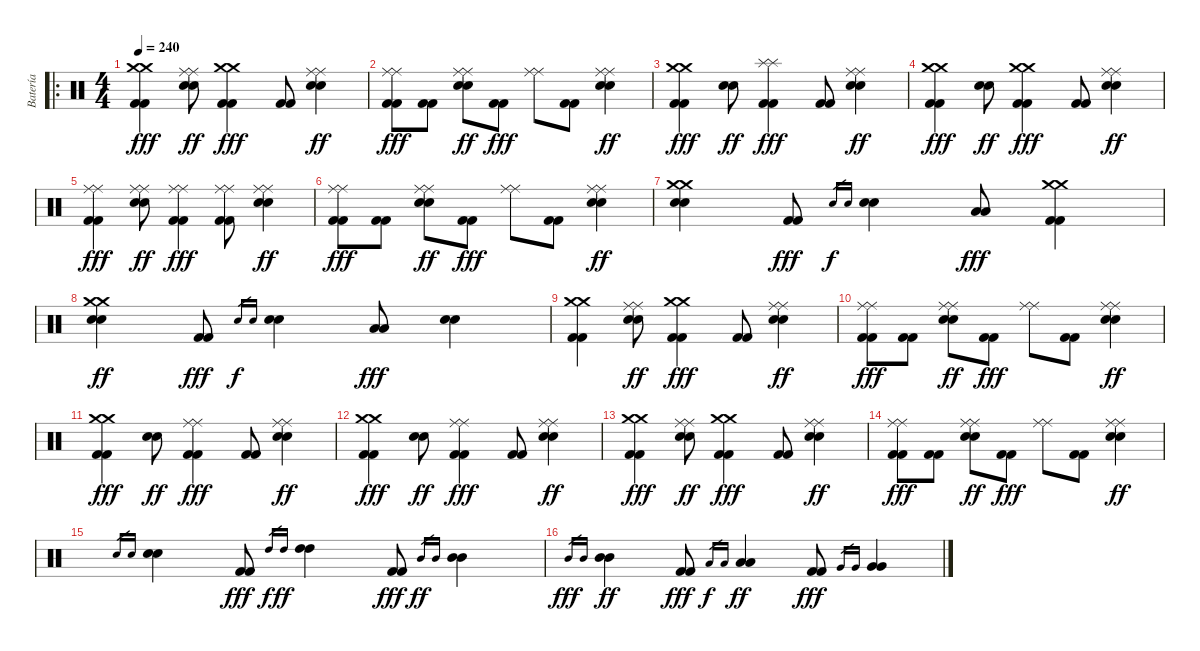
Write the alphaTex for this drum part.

\track ("Batería" "Batería") {instrument percussion}
\staff {score}
\articulation defaults
\ro
\ts (4 4)
\tempo 240
\clef neutral
\ks c
("Crash medium (hit)" "Crash medium (hit)" "Kick (hit) 2" "Kick (hit) 2").4{dy fff} ("Ride (middle)" "Ride (middle)" "Electric Snare (hit)" "Electric Snare (hit)").8{dy ff} ("Crash medium (hit)" "Crash medium (hit)" "Kick (hit) 2" "Kick (hit) 2").4{dy fff} ("Kick (hit) 2" "Kick (hit) 2").8 ("Ride (middle)" "Ride (middle)" "Electric Snare (hit)" "Electric Snare (hit)").4{dy ff} |
("Ride (middle)" "Ride (middle)" "Kick (hit) 2" "Kick (hit) 2").8{dy fff} ("Kick (hit) 2" "Kick (hit) 2").8 ("Ride (middle)" "Ride (middle)" "Electric Snare (hit)" "Electric Snare (hit)").8{dy ff} ("Kick (hit) 2" "Kick (hit) 2").8{dy fff} ("Ride (middle)" "Ride (middle)").8 ("Kick (hit) 2" "Kick (hit) 2").8 ("Ride (middle)" "Ride (middle)" "Electric Snare (hit)" "Electric Snare (hit)").4{dy ff} |
("Crash medium (hit)" "Crash medium (hit)" "Kick (hit) 2" "Kick (hit) 2").4{dy fff} ("Electric Snare (hit)" "Electric Snare (hit)").8{dy ff} ("Splash (hit)" "Splash (hit)" "Kick (hit) 2" "Kick (hit) 2").4{dy fff} ("Kick (hit) 2" "Kick (hit) 2").8 ("Ride (middle)" "Ride (middle)" "Electric Snare (hit)" "Electric Snare (hit)").4{dy ff} |
("Crash medium (hit)" "Crash medium (hit)" "Kick (hit) 2" "Kick (hit) 2").4{dy fff} ("Electric Snare (hit)" "Electric Snare (hit)").8{dy ff} ("Crash medium (hit)" "Crash medium (hit)" "Kick (hit) 2" "Kick (hit) 2").4{dy fff} ("Kick (hit) 2" "Kick (hit) 2").8 ("Ride (middle)" "Ride (middle)" "Electric Snare (hit)" "Electric Snare (hit)").4{dy ff} |
("Ride (middle)" "Ride (middle)" "Kick (hit) 2" "Kick (hit) 2").4{dy fff} ("Ride (middle)" "Ride (middle)" "Electric Snare (hit)" "Electric Snare (hit)").8{dy ff} ("Ride (middle)" "Ride (middle)" "Kick (hit) 2" "Kick (hit) 2").4{dy fff} ("Ride (middle)" "Ride (middle)" "Kick (hit) 2" "Kick (hit) 2").8 ("Ride (middle)" "Ride (middle)" "Electric Snare (hit)" "Electric Snare (hit)").4{dy ff} |
("Ride (middle)" "Ride (middle)" "Kick (hit) 2" "Kick (hit) 2").8{dy fff} ("Kick (hit) 2" "Kick (hit) 2").8 ("Ride (middle)" "Ride (middle)" "Electric Snare (hit)" "Electric Snare (hit)").8{dy ff} ("Kick (hit) 2" "Kick (hit) 2").8{dy fff} ("Ride (middle)" "Ride (middle)").8 ("Kick (hit) 2" "Kick (hit) 2").8 ("Ride (middle)" "Ride (middle)" "Electric Snare (hit)" "Electric Snare (hit)").4{dy ff} |
("Crash medium (hit)" "Crash medium (hit)" "Electric Snare (hit)" "Electric Snare (hit)").4 ("Kick (hit) 2" "Kick (hit) 2").8{dy fff} "Electric Snare (hit)".16{gr dy f} "Electric Snare (hit)".16{gr} ("Electric Snare (hit)" "Electric Snare (hit)").4 ("Low Tom (hit)" "Low Tom (hit)").8{dy fff} ("Crash medium (hit)" "Crash medium (hit)" "Kick (hit) 2" "Kick (hit) 2").4 |
("Crash medium (hit)" "Crash medium (hit)" "Electric Snare (hit)" "Electric Snare (hit)").4{dy ff} ("Kick (hit) 2" "Kick (hit) 2").8{dy fff} "Electric Snare (hit)".16{gr dy f} "Electric Snare (hit)".16{gr} ("Electric Snare (hit)" "Electric Snare (hit)").4 ("Low Tom (hit)" "Low Tom (hit)").8{dy fff} ("Electric Snare (hit)" "Electric Snare (hit)").4 |
("Crash medium (hit)" "Crash medium (hit)" "Kick (hit) 2" "Kick (hit) 2").4 ("Ride (middle)" "Ride (middle)" "Electric Snare (hit)" "Electric Snare (hit)").8{dy ff} ("Crash medium (hit)" "Crash medium (hit)" "Kick (hit) 2" "Kick (hit) 2").4{dy fff} ("Kick (hit) 2" "Kick (hit) 2").8 ("Ride (middle)" "Ride (middle)" "Electric Snare (hit)" "Electric Snare (hit)").4{dy ff} |
("Ride (middle)" "Ride (middle)" "Kick (hit) 2" "Kick (hit) 2").8{dy fff} ("Kick (hit) 2" "Kick (hit) 2").8 ("Ride (middle)" "Ride (middle)" "Electric Snare (hit)" "Electric Snare (hit)").8{dy ff} ("Kick (hit) 2" "Kick (hit) 2").8{dy fff} ("Ride (middle)" "Ride (middle)").8 ("Kick (hit) 2" "Kick (hit) 2").8 ("Ride (middle)" "Ride (middle)" "Electric Snare (hit)" "Electric Snare (hit)").4{dy ff} |
("Crash medium (hit)" "Crash medium (hit)" "Kick (hit) 2" "Kick (hit) 2").4{dy fff} ("Electric Snare (hit)" "Electric Snare (hit)").8{dy ff} ("Ride (middle)" "Ride (middle)" "Kick (hit) 2" "Kick (hit) 2").4{dy fff} ("Kick (hit) 2" "Kick (hit) 2").8 ("Ride (middle)" "Ride (middle)" "Electric Snare (hit)" "Electric Snare (hit)").4{dy ff} |
("Crash medium (hit)" "Crash medium (hit)" "Kick (hit) 2" "Kick (hit) 2").4{dy fff} ("Electric Snare (hit)" "Electric Snare (hit)").8{dy ff} ("Ride (middle)" "Ride (middle)" "Kick (hit) 2" "Kick (hit) 2").4{dy fff} ("Kick (hit) 2" "Kick (hit) 2").8 ("Ride (middle)" "Ride (middle)" "Electric Snare (hit)" "Electric Snare (hit)").4{dy ff} |
("Crash medium (hit)" "Crash medium (hit)" "Kick (hit) 2" "Kick (hit) 2").4{dy fff} ("Ride (middle)" "Ride (middle)" "Electric Snare (hit)" "Electric Snare (hit)").8{dy ff} ("Crash medium (hit)" "Crash medium (hit)" "Kick (hit) 2" "Kick (hit) 2").4{dy fff} ("Kick (hit) 2" "Kick (hit) 2").8 ("Ride (middle)" "Ride (middle)" "Electric Snare (hit)" "Electric Snare (hit)").4{dy ff} |
("Ride (middle)" "Ride (middle)" "Kick (hit) 2" "Kick (hit) 2").8{dy fff} ("Kick (hit) 2" "Kick (hit) 2").8 ("Ride (middle)" "Ride (middle)" "Electric Snare (hit)" "Electric Snare (hit)").8{dy ff} ("Kick (hit) 2" "Kick (hit) 2").8{dy fff} ("Ride (middle)" "Ride (middle)").8 ("Kick (hit) 2" "Kick (hit) 2").8 ("Ride (middle)" "Ride (middle)" "Electric Snare (hit)" "Electric Snare (hit)").4{dy ff} |
"Electric Snare (hit)".16{gr} "Electric Snare (hit)".16{gr} ("Electric Snare (hit)" "Electric Snare (hit)").4 ("Kick (hit) 2" "Kick (hit) 2").8{dy fff} "High Tom (hit)".16{gr dy f} "High Tom (hit)".16{gr dy ff} ("High Tom (hit)" "High Tom (hit)").4 ("Kick (hit) 2" "Kick (hit) 2").8{dy fff} "Mid Tom (hit)".16{gr dy ff} "Mid Tom (hit)".16{gr} ("Mid Tom (hit)" "Mid Tom (hit)").4 |
"Mid Tom (hit)".16{gr dy fff} "Mid Tom (hit)".16{gr} ("Mid Tom (hit)" "Mid Tom (hit)").4{dy ff} ("Kick (hit) 2" "Kick (hit) 2").8{dy fff} "Low Tom (hit)".16{gr dy f} "Low Tom (hit)".16{gr} ("Low Tom (hit)" "Low Tom (hit)").4{dy ff} ("Kick (hit) 2" "Kick (hit) 2").8{dy fff} "Very Low Tom (hit)".16{gr} "Very Low Tom (hit)".16{gr} ("Very Low Tom (hit)" "Very Low Tom (hit)").4
